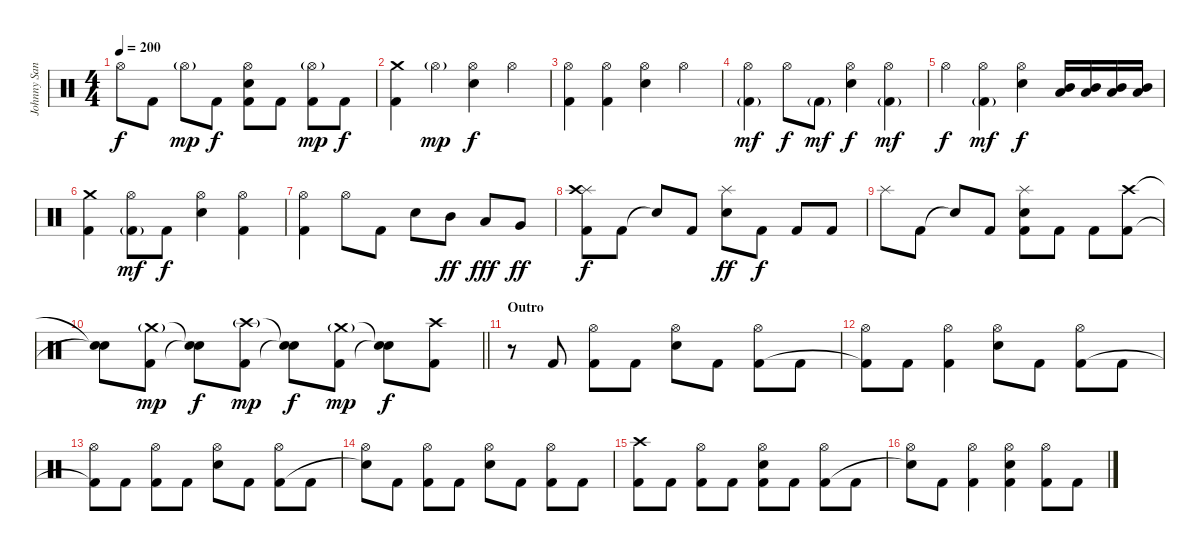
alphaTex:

\track ("Johnny Sandin" "Johnny San") {instrument percussion}
\staff {score}
\articulation defaults
\ts (4 4)
\tempo 200
\clef neutral
\ks c "Hi-Hat (open)".8{dy f} "Kick (hit) 2".8 "Hi-Hat (open)"{g}.8{dy mp} "Kick (hit) 2".8{dy f}
("Hi-Hat (open)" "Snare (hit) 2" "Kick (hit) 2").8 "Kick (hit) 2".8 ("Hi-Hat (open)"{g} "Kick (hit) 2").8{dy mp} "Kick (hit) 2".8{dy f} |
("Crash medium (hit)" "Kick (hit) 2").4 "Hi-Hat (open)"{g}.4{dy mp} ("Hi-Hat (open)" "Snare (hit) 2").4{dy f} "Hi-Hat (open)".4 |
("Hi-Hat (open)" "Kick (hit) 2").4 ("Hi-Hat (open)" "Kick (hit) 2").4 ("Hi-Hat (open)" "Snare (hit) 2").4 "Hi-Hat (open)".4 |
("Hi-Hat (open)" "Kick (hit) 2"{g}).4{dy mf} "Hi-Hat (open)".8{dy f} "Kick (hit) 2"{g}.8{dy mf} ("Hi-Hat (open)" "Snare (hit) 2").4{dy f} ("Hi-Hat (open)" "Kick (hit) 2"{g}).4{dy mf} |
"Hi-Hat (open)".4{dy f} ("Hi-Hat (open)" "Kick (hit) 2"{g}).4{dy mf} ("Hi-Hat (open)" "Snare (hit) 2").4{dy f} ("Mid Tom (hit)" "Low Tom (hit)").16 ("Mid Tom (hit)" "Low Tom (hit)").16 ("Mid Tom (hit)" "Low Tom (hit)").16 ("Mid Tom (hit)" "Low Tom (hit)").16 |
("Crash medium (hit)" "Kick (hit) 2").4 ("Hi-Hat (open)" "Kick (hit) 2"{g}).8{dy mf} "Kick (hit) 2".8{dy f} ("Hi-Hat (open)" "Snare (hit) 2").4 ("Hi-Hat (open)" "Kick (hit) 2").4 |
("Hi-Hat (open)" "Kick (hit) 2").4 "Hi-Hat (open)".8 "Kick (hit) 2".8 "Snare (hit) 2".8 "Mid Tom (hit)".8{dy ff} "Low Tom (hit)".8{dy fff} "Very Low Tom (hit)".8{dy ff} |
("Splash (hit)" "Crash high (hit)" "Kick (hit) 2").8{dy f} "Kick (hit) 2".8 "Snare (hit)"{t}.8 "Kick (hit) 2".8 ("Splash (hit)" "Snare (hit) 2").8{dy ff} "Kick (hit) 2".8{dy f} "Kick (hit) 2".8 "Kick (hit) 2".8 |
"Splash (hit)".8 "Kick (hit) 2".8 "Snare (hit)"{t}.8 "Kick (hit) 2".8 ("Splash (hit)" "Snare (hit) 2" "Kick (hit) 2").8 "Kick (hit) 2".8 "Kick (hit) 2".8 ("Crash high (hit)" "Kick (hit) 2").8 |
\barLineRight lightlight
("Snare (hit)"{t} "Snare (hit)"{t}).8 ("Crash medium (hit)"{g} "Kick (hit) 2").8{dy mp} ("Snare (hit)"{t} "Snare (hit)"{t}).8{dy f} ("Crash high (hit)"{g} "Kick (hit) 2").8{dy mp} ("Snare (hit)"{t} "Snare (hit)"{t}).8{dy f} ("Crash medium (hit)"{g} "Kick (hit) 2").8{dy mp} ("Snare (hit)"{t} "Snare (hit)"{t}).8{dy f} ("Crash high (hit)" "Kick (hit) 2").8 |
\section ("" "Outro")
r.8 "Kick (hit) 2".8 ("Hi-Hat (open)" "Kick (hit) 2").8 "Kick (hit) 2".8 ("Hi-Hat (open)" "Snare (hit) 2").8 "Kick (hit) 2".8 ("Hi-Hat (open)" "Kick (hit) 2").8 "Kick (hit) 2".8 |
("Hi-Hat (open)" "Kick (hit) 2"{t}).8 "Kick (hit) 2".8 ("Hi-Hat (open)" "Kick (hit) 2").4 ("Hi-Hat (open)" "Snare (hit) 2").8 "Kick (hit) 2".8 ("Hi-Hat (open)" "Kick (hit) 2").8 "Kick (hit) 2".8 |
("Hi-Hat (open)" "Kick (hit) 2"{t}).8 "Kick (hit) 2".8 ("Hi-Hat (open)" "Kick (hit) 2").8 "Kick (hit) 2".8 ("Hi-Hat (open)" "Snare (hit) 2").8 "Kick (hit) 2".8 ("Hi-Hat (open)" "Kick (hit) 2").8 "Kick (hit) 2".8 |
("Hi-Hat (open)" "Snare (hit)"{t}).8 "Kick (hit) 2".8 ("Hi-Hat (open)" "Kick (hit) 2").8 "Kick (hit) 2".8 ("Hi-Hat (open)" "Snare (hit) 2").8 "Kick (hit) 2".8 ("Hi-Hat (open)" "Kick (hit) 2").8 "Kick (hit) 2".8 |
("Crash high (hit)" "Kick (hit) 2").8 "Kick (hit) 2".8 ("Hi-Hat (open)" "Kick (hit) 2").8 "Kick (hit) 2".8 ("Hi-Hat (open)" "Snare (hit) 2" "Kick (hit) 2").8 "Kick (hit) 2".8 ("Hi-Hat (open)" "Kick (hit) 2").8 "Kick (hit) 2".8 |
("Hi-Hat (open)" "Snare (hit)"{t}).8 "Kick (hit) 2".8 ("Hi-Hat (open)" "Kick (hit) 2").4 ("Hi-Hat (open)" "Snare (hit) 2" "Kick (hit) 2").4 ("Hi-Hat (open)" "Kick (hit) 2").8 "Kick (hit) 2".8
